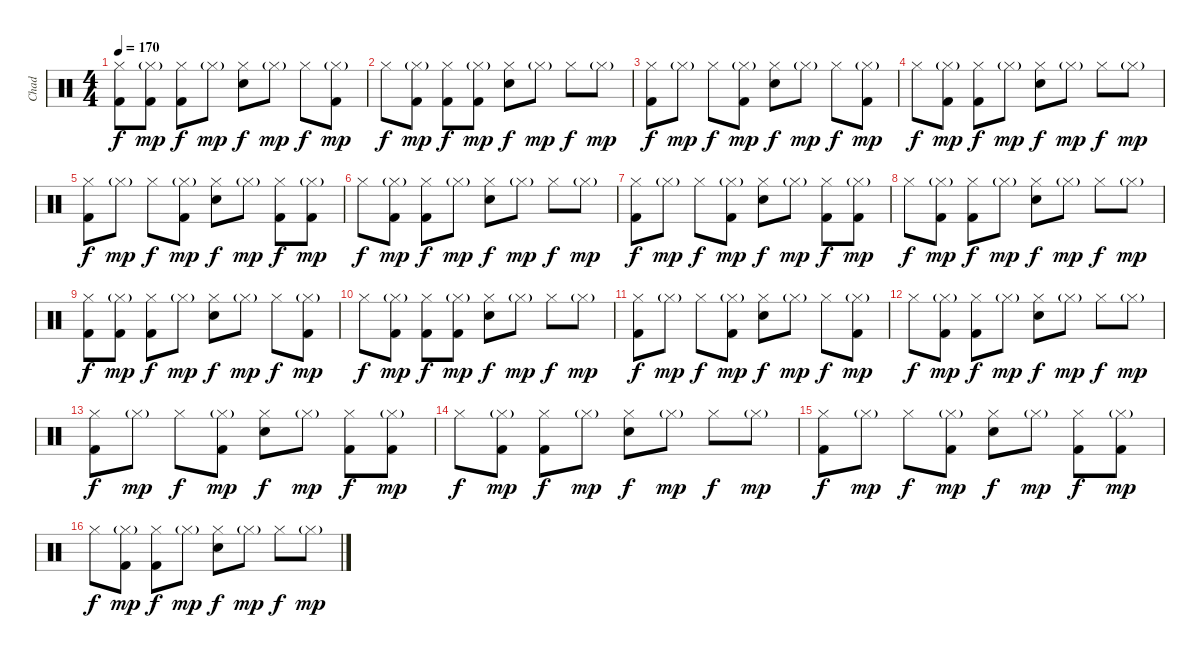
\track ("Chad" "Chad") {instrument percussion}
\staff {score}
\articulation defaults
\ts (4 4)
\tempo 170
\clef neutral
\ks c
("Hi-Hat (closed)" "Kick (hit) 2").8{dy f} ("Hi-Hat (closed)"{g} "Kick (hit) 2").8{dy mp} ("Hi-Hat (closed)" "Kick (hit) 2").8{dy f} "Hi-Hat (closed)"{g}.8{dy mp} ("Hi-Hat (closed)" "Snare (hit) 2").8{dy f} "Hi-Hat (closed)"{g}.8{dy mp} "Hi-Hat (closed)".8{dy f} ("Hi-Hat (closed)"{g} "Kick (hit) 2").8{dy mp} |
"Hi-Hat (closed)".8{dy f} ("Hi-Hat (closed)"{g} "Kick (hit) 2").8{dy mp} ("Hi-Hat (closed)" "Kick (hit) 2").8{dy f} ("Hi-Hat (closed)"{g} "Kick (hit) 2").8{dy mp} ("Hi-Hat (closed)" "Snare (hit) 2").8{dy f} "Hi-Hat (closed)"{g}.8{dy mp} "Hi-Hat (closed)".8{dy f} "Hi-Hat (closed)"{g}.8{dy mp} |
("Hi-Hat (closed)" "Kick (hit) 2").8{dy f} "Hi-Hat (closed)"{g}.8{dy mp} "Hi-Hat (closed)".8{dy f} ("Hi-Hat (closed)"{g} "Kick (hit) 2").8{dy mp} ("Hi-Hat (closed)" "Snare (hit) 2").8{dy f} "Hi-Hat (closed)"{g}.8{dy mp} "Hi-Hat (closed)".8{dy f} ("Hi-Hat (closed)"{g} "Kick (hit) 2").8{dy mp} |
"Hi-Hat (closed)".8{dy f} ("Hi-Hat (closed)"{g} "Kick (hit) 2").8{dy mp} ("Hi-Hat (closed)" "Kick (hit) 2").8{dy f} "Hi-Hat (closed)"{g}.8{dy mp} ("Hi-Hat (closed)" "Snare (hit) 2").8{dy f} "Hi-Hat (closed)"{g}.8{dy mp} "Hi-Hat (closed)".8{dy f} "Hi-Hat (closed)"{g}.8{dy mp} |
("Hi-Hat (closed)" "Kick (hit) 2").8{dy f} "Hi-Hat (closed)"{g}.8{dy mp} "Hi-Hat (closed)".8{dy f} ("Hi-Hat (closed)"{g} "Kick (hit) 2").8{dy mp} ("Hi-Hat (closed)" "Snare (hit) 2").8{dy f} "Hi-Hat (closed)"{g}.8{dy mp} ("Hi-Hat (closed)" "Kick (hit) 2").8{dy f} ("Hi-Hat (closed)"{g} "Kick (hit) 2").8{dy mp} |
"Hi-Hat (closed)".8{dy f} ("Hi-Hat (closed)"{g} "Kick (hit) 2").8{dy mp} ("Hi-Hat (closed)" "Kick (hit) 2").8{dy f} "Hi-Hat (closed)"{g}.8{dy mp} ("Hi-Hat (closed)" "Snare (hit) 2").8{dy f} "Hi-Hat (closed)"{g}.8{dy mp} "Hi-Hat (closed)".8{dy f} "Hi-Hat (closed)"{g}.8{dy mp} |
("Hi-Hat (closed)" "Kick (hit) 2").8{dy f} "Hi-Hat (closed)"{g}.8{dy mp} "Hi-Hat (closed)".8{dy f} ("Hi-Hat (closed)"{g} "Kick (hit) 2").8{dy mp} ("Hi-Hat (closed)" "Snare (hit) 2").8{dy f} "Hi-Hat (closed)"{g}.8{dy mp} ("Hi-Hat (closed)" "Kick (hit) 2").8{dy f} ("Hi-Hat (closed)"{g} "Kick (hit) 2").8{dy mp} |
"Hi-Hat (closed)".8{dy f} ("Hi-Hat (closed)"{g} "Kick (hit) 2").8{dy mp} ("Hi-Hat (closed)" "Kick (hit) 2").8{dy f} "Hi-Hat (closed)"{g}.8{dy mp} ("Hi-Hat (closed)" "Snare (hit) 2").8{dy f} "Hi-Hat (closed)"{g}.8{dy mp} "Hi-Hat (closed)".8{dy f} "Hi-Hat (closed)"{g}.8{dy mp} |
("Hi-Hat (closed)" "Kick (hit) 2").8{dy f} ("Hi-Hat (closed)"{g} "Kick (hit) 2").8{dy mp} ("Hi-Hat (closed)" "Kick (hit) 2").8{dy f} "Hi-Hat (closed)"{g}.8{dy mp} ("Hi-Hat (closed)" "Snare (hit) 2").8{dy f} "Hi-Hat (closed)"{g}.8{dy mp} "Hi-Hat (closed)".8{dy f} ("Hi-Hat (closed)"{g} "Kick (hit) 2").8{dy mp} |
"Hi-Hat (closed)".8{dy f} ("Hi-Hat (closed)"{g} "Kick (hit) 2").8{dy mp} ("Hi-Hat (closed)" "Kick (hit) 2").8{dy f} ("Hi-Hat (closed)"{g} "Kick (hit) 2").8{dy mp} ("Hi-Hat (closed)" "Snare (hit) 2").8{dy f} "Hi-Hat (closed)"{g}.8{dy mp} "Hi-Hat (closed)".8{dy f} "Hi-Hat (closed)"{g}.8{dy mp} |
("Hi-Hat (closed)" "Kick (hit) 2").8{dy f} "Hi-Hat (closed)"{g}.8{dy mp} "Hi-Hat (closed)".8{dy f} ("Hi-Hat (closed)"{g} "Kick (hit) 2").8{dy mp} ("Hi-Hat (closed)" "Snare (hit) 2").8{dy f} "Hi-Hat (closed)"{g}.8{dy mp} "Hi-Hat (closed)".8{dy f} ("Hi-Hat (closed)"{g} "Kick (hit) 2").8{dy mp} |
"Hi-Hat (closed)".8{dy f} ("Hi-Hat (closed)"{g} "Kick (hit) 2").8{dy mp} ("Hi-Hat (closed)" "Kick (hit) 2").8{dy f} "Hi-Hat (closed)"{g}.8{dy mp} ("Hi-Hat (closed)" "Snare (hit) 2").8{dy f} "Hi-Hat (closed)"{g}.8{dy mp} "Hi-Hat (closed)".8{dy f} "Hi-Hat (closed)"{g}.8{dy mp} |
("Hi-Hat (closed)" "Kick (hit) 2").8{dy f} "Hi-Hat (closed)"{g}.8{dy mp} "Hi-Hat (closed)".8{dy f} ("Hi-Hat (closed)"{g} "Kick (hit) 2").8{dy mp} ("Hi-Hat (closed)" "Snare (hit) 2").8{dy f} "Hi-Hat (closed)"{g}.8{dy mp} ("Hi-Hat (closed)" "Kick (hit) 2").8{dy f} ("Hi-Hat (closed)"{g} "Kick (hit) 2").8{dy mp} |
"Hi-Hat (closed)".8{dy f} ("Hi-Hat (closed)"{g} "Kick (hit) 2").8{dy mp} ("Hi-Hat (closed)" "Kick (hit) 2").8{dy f} "Hi-Hat (closed)"{g}.8{dy mp} ("Hi-Hat (closed)" "Snare (hit) 2").8{dy f} "Hi-Hat (closed)"{g}.8{dy mp} "Hi-Hat (closed)".8{dy f} "Hi-Hat (closed)"{g}.8{dy mp} |
("Hi-Hat (closed)" "Kick (hit) 2").8{dy f} "Hi-Hat (closed)"{g}.8{dy mp} "Hi-Hat (closed)".8{dy f} ("Hi-Hat (closed)"{g} "Kick (hit) 2").8{dy mp} ("Hi-Hat (closed)" "Snare (hit) 2").8{dy f} "Hi-Hat (closed)"{g}.8{dy mp} ("Hi-Hat (closed)" "Kick (hit) 2").8{dy f} ("Hi-Hat (closed)"{g} "Kick (hit) 2").8{dy mp} |
"Hi-Hat (closed)".8{dy f} ("Hi-Hat (closed)"{g} "Kick (hit) 2").8{dy mp} ("Hi-Hat (closed)" "Kick (hit) 2").8{dy f} "Hi-Hat (closed)"{g}.8{dy mp} ("Hi-Hat (closed)" "Snare (hit) 2").8{dy f} "Hi-Hat (closed)"{g}.8{dy mp} "Hi-Hat (closed)".8{dy f} "Hi-Hat (closed)"{g}.8{dy mp}
